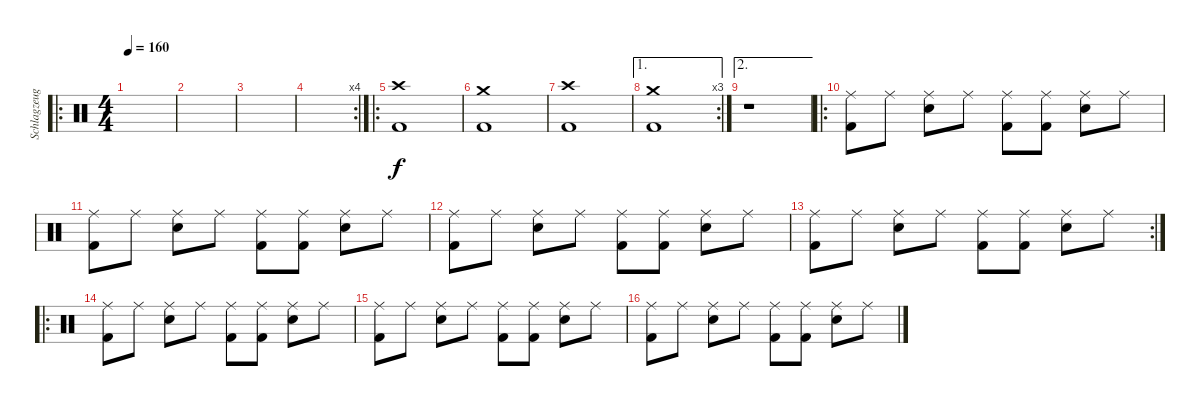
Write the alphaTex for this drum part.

\track ("Schlagzeug" "Schlagzeug") {instrument percussion}
\staff {score}
\articulation defaults
\ro
\ts (4 4)
\tempo 160
\clef neutral
\ks c
|
|
|
\rc 4
|
\ro
("Crash high (hit)" "Kick (hit) 2").1 |
("Crash medium (hit)" "Kick (hit) 2").1 |
("Crash high (hit)" "Kick (hit) 2").1 |
\ae 1
\rc 3
("Kick (hit) 2" "Crash medium (hit)").1 |
\ae 2
r.1 |
\ro
("Ride (middle)" "Kick (hit) 2").8 "Ride (middle)".8 ("Ride (middle)" "Snare (hit) 2").8 "Ride (middle)".8 ("Ride (middle)" "Kick (hit) 2").8 ("Ride (middle)" "Kick (hit) 2").8 ("Ride (middle)" "Snare (hit) 2").8 "Ride (middle)".8 |
("Ride (middle)" "Kick (hit) 2").8 "Ride (middle)".8 ("Ride (middle)" "Snare (hit) 2").8 "Ride (middle)".8 ("Ride (middle)" "Kick (hit) 2").8 ("Ride (middle)" "Kick (hit) 2").8 ("Ride (middle)" "Snare (hit) 2").8 "Ride (middle)".8 |
("Ride (middle)" "Kick (hit) 2").8 "Ride (middle)".8 ("Ride (middle)" "Snare (hit) 2").8 "Ride (middle)".8 ("Ride (middle)" "Kick (hit) 2").8 ("Ride (middle)" "Kick (hit) 2").8 ("Ride (middle)" "Snare (hit) 2").8 "Ride (middle)".8 |
\rc 2
("Ride (middle)" "Kick (hit) 2").8 "Ride (middle)".8 ("Ride (middle)" "Snare (hit) 2").8 "Ride (middle)".8 ("Ride (middle)" "Kick (hit) 2").8 ("Ride (middle)" "Kick (hit) 2").8 ("Ride (middle)" "Snare (hit) 2").8 "Ride (middle)".8 |
\ro
("Ride (middle)" "Kick (hit) 2").8 "Ride (middle)".8 ("Ride (middle)" "Snare (hit) 2").8 "Ride (middle)".8 ("Ride (middle)" "Kick (hit) 2").8 ("Ride (middle)" "Kick (hit) 2").8 ("Ride (middle)" "Snare (hit) 2").8 "Ride (middle)".8 |
("Ride (middle)" "Kick (hit) 2").8 "Ride (middle)".8 ("Ride (middle)" "Snare (hit) 2").8 "Ride (middle)".8 ("Ride (middle)" "Kick (hit) 2").8 ("Ride (middle)" "Kick (hit) 2").8 ("Ride (middle)" "Snare (hit) 2").8 "Ride (middle)".8 |
("Ride (middle)" "Kick (hit) 2").8 "Ride (middle)".8 ("Ride (middle)" "Snare (hit) 2").8 "Ride (middle)".8 ("Ride (middle)" "Kick (hit) 2").8 ("Ride (middle)" "Kick (hit) 2").8 ("Ride (middle)" "Snare (hit) 2").8 "Ride (middle)".8
